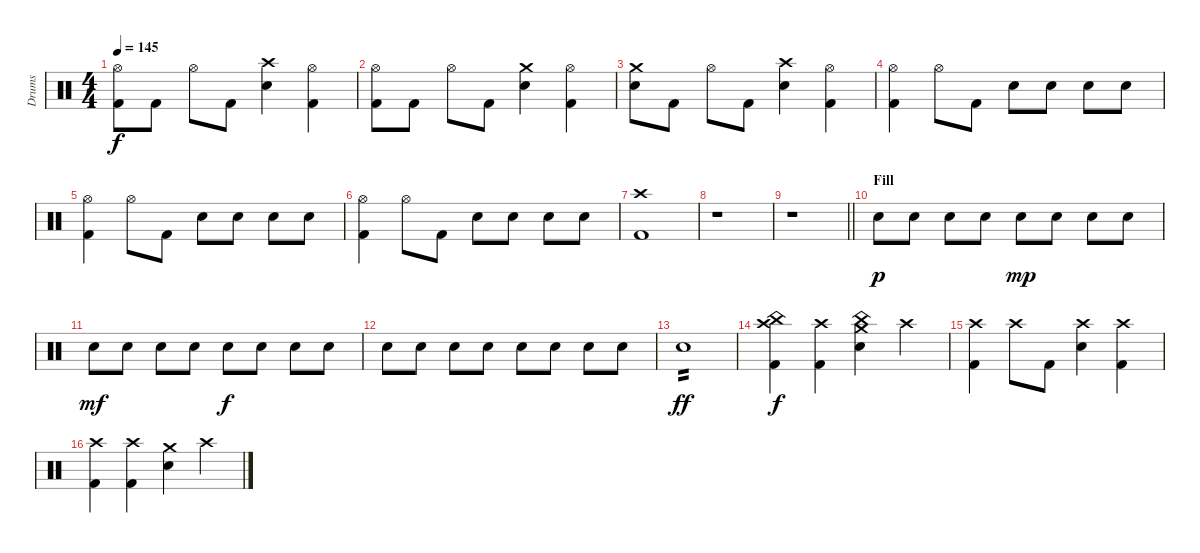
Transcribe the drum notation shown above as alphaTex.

\track ("Drums" "Drums") {instrument percussion}
\staff {score}
\articulation defaults
\ts (4 4)
\tempo 145
\clef neutral
\ks c
("Hi-Hat (open)" "Kick (hit) 2").8{dy f} "Kick (hit) 2".8 "Hi-Hat (open)".8 "Kick (hit) 2".8 ("Crash high (hit)" "Snare (hit) 2").4 ("Hi-Hat (open)" "Kick (hit) 2").4 |
("Hi-Hat (open)" "Kick (hit) 2").8 "Kick (hit) 2".8 "Hi-Hat (open)".8 "Kick (hit) 2".8 ("Crash medium (hit)" "Snare (hit) 2").4 ("Hi-Hat (open)" "Kick (hit) 2").4 |
("Crash medium (hit)" "Snare (hit) 2").8 "Kick (hit) 2".8 "Hi-Hat (open)".8 "Kick (hit) 2".8 ("Crash high (hit)" "Snare (hit) 2").4 ("Hi-Hat (open)" "Kick (hit) 2").4 |
("Hi-Hat (open)" "Kick (hit) 2").4 "Hi-Hat (open)".8 "Kick (hit) 2".8 "Snare (hit) 2".8 "Snare (hit) 2".8 "Snare (hit) 2".8 "Snare (hit) 2".8 |
("Hi-Hat (open)" "Kick (hit) 2").4 "Hi-Hat (open)".8 "Kick (hit) 2".8 "Snare (hit) 2".8 "Snare (hit) 2".8 "Snare (hit) 2".8 "Snare (hit) 2".8 |
("Hi-Hat (open)" "Kick (hit) 2").4 "Hi-Hat (open)".8 "Kick (hit) 2".8 "Snare (hit) 2".8 "Snare (hit) 2".8 "Snare (hit) 2".8 "Snare (hit) 2".8 |
("Crash high (hit)" "Kick (hit) 2").1 |
r.1 |
\barLineRight lightlight
r.1 |
\section ("" "Fill")
"Snare (hit) 2".8{dy p} "Snare (hit) 2".8 "Snare (hit) 2".8 "Snare (hit) 2".8 "Snare (hit) 2".8{dy mp} "Snare (hit) 2".8 "Snare (hit) 2".8 "Snare (hit) 2".8 |
"Snare (hit) 2".8{dy mf} "Snare (hit) 2".8 "Snare (hit) 2".8 "Snare (hit) 2".8 "Snare (hit) 2".8{dy f} "Snare (hit) 2".8 "Snare (hit) 2".8 "Snare (hit) 2".8 |
"Snare (hit) 2".8 "Snare (hit) 2".8 "Snare (hit) 2".8 "Snare (hit) 2".8 "Snare (hit) 2".8 "Snare (hit) 2".8 "Snare (hit) 2".8 "Snare (hit) 2".8 |
"Snare (hit) 2".1{tp 2 dy ff} |
("Crash high (hit)" "China (hit)" "Kick (hit) 2").4{dy f} ("Crash high (hit)" "Kick (hit) 2").4 ("Crash medium (hit)" "China (hit)" "Snare (hit) 2").4 "Crash high (hit)".4 |
("Crash high (hit)" "Kick (hit) 2").4 "Crash high (hit)".8 "Kick (hit) 2".8 ("Crash high (hit)" "Snare (hit) 2").4 ("Crash high (hit)" "Kick (hit) 2").4 |
("Crash high (hit)" "Kick (hit) 2").4 ("Crash high (hit)" "Kick (hit) 2").4 ("Crash medium (hit)" "Snare (hit) 2").4 "Crash high (hit)".4
